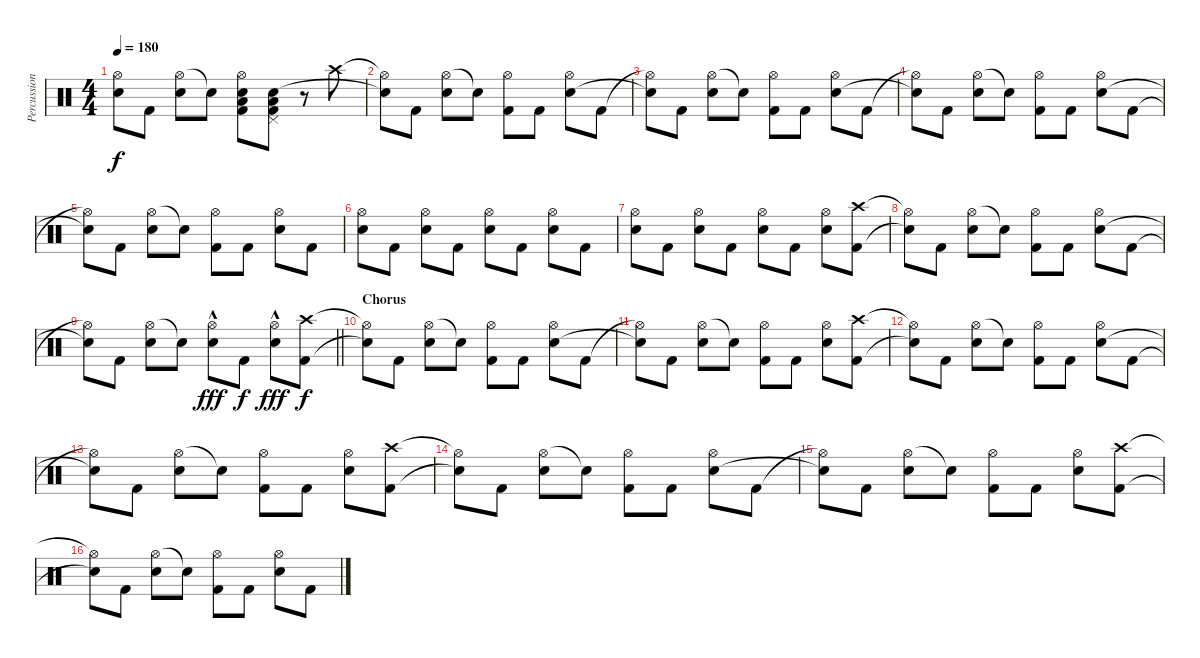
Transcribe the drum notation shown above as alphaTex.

\track ("Percussion" "Percussion") {instrument percussion}
\staff {score}
\articulation defaults
\ts (4 4)
\tempo 180
\clef neutral
\ks c
("Hi-Hat (open)"{t} "Snare (hit)"{t}).8{dy f} "Kick (hit) 2".8 ("Hi-Hat (open)" "Electric Snare (hit)").8 "Snare (hit)"{t}.8 ("Hi-Hat (open)" "Electric Snare (hit)" "Low Floor Tom (hit)" "Kick (hit) 2").8 ("Pedal Hi-Hat (hit)" "Electric Snare (hit)" "Low Floor Tom (hit)" "Kick (hit) 2").8 r.8 "Crash high (hit)".8 |
("Hi-Hat (open)"{t} "Snare (hit)"{t}).8 "Kick (hit) 2".8 ("Hi-Hat (open)" "Electric Snare (hit)").8 "Snare (hit)"{t}.8 ("Hi-Hat (open)" "Kick (hit) 2").8 "Kick (hit) 2".8 ("Hi-Hat (open)" "Electric Snare (hit)").8 "Kick (hit) 2".8 |
("Hi-Hat (open)"{t} "Snare (hit)"{t}).8 "Kick (hit) 2".8 ("Hi-Hat (open)" "Electric Snare (hit)").8 "Snare (hit)"{t}.8 ("Hi-Hat (open)" "Kick (hit) 2").8 "Kick (hit) 2".8 ("Hi-Hat (open)" "Electric Snare (hit)").8 "Kick (hit) 2".8 |
("Hi-Hat (open)"{t} "Snare (hit)"{t}).8 "Kick (hit) 2".8 ("Hi-Hat (open)" "Electric Snare (hit)").8 "Snare (hit)"{t}.8 ("Hi-Hat (open)" "Kick (hit) 2").8 "Kick (hit) 2".8 ("Hi-Hat (open)" "Electric Snare (hit)").8 "Kick (hit) 2".8 |
("Hi-Hat (open)"{t} "Snare (hit)"{t}).8 "Kick (hit) 2".8 ("Hi-Hat (open)" "Electric Snare (hit)").8 "Snare (hit)"{t}.8 ("Hi-Hat (open)" "Kick (hit) 2").8 "Kick (hit) 2".8 ("Hi-Hat (open)" "Electric Snare (hit)").8 "Kick (hit) 2".8 |
("Hi-Hat (open)" "Electric Snare (hit)").8 "Kick (hit) 2".8 ("Hi-Hat (open)" "Electric Snare (hit)").8 "Kick (hit) 2".8 ("Hi-Hat (open)" "Electric Snare (hit)").8 "Kick (hit) 2".8 ("Hi-Hat (open)" "Electric Snare (hit)").8 "Kick (hit) 2".8 |
("Hi-Hat (open)" "Electric Snare (hit)").8 "Kick (hit) 2".8 ("Hi-Hat (open)" "Electric Snare (hit)").8 "Kick (hit) 2".8 ("Hi-Hat (open)" "Electric Snare (hit)").8 "Kick (hit) 2".8 ("Hi-Hat (open)" "Electric Snare (hit)").8 ("Crash high (hit)" "Kick (hit) 2").8 |
("Hi-Hat (open)"{t} "Snare (hit)"{t}).8 "Kick (hit) 2".8 ("Hi-Hat (open)" "Electric Snare (hit)").8 "Snare (hit)"{t}.8 ("Hi-Hat (open)" "Kick (hit) 2").8 "Kick (hit) 2".8 ("Hi-Hat (open)" "Electric Snare (hit)").8 "Kick (hit) 2".8 |
\barLineRight lightlight
("Hi-Hat (open)"{t} "Snare (hit)"{t}).8 "Kick (hit) 2".8 ("Hi-Hat (open)" "Electric Snare (hit)").8 "Snare (hit)"{t}.8 ("Hi-Hat (open)"{hac} "Electric Snare (hit)").8{dy fff} "Kick (hit) 2".8{dy f} ("Hi-Hat (open)"{hac} "Electric Snare (hit)").8{dy fff} ("Crash high (hit)" "Kick (hit) 2").8{dy f} |
\section ("" "Chorus")
("Hi-Hat (open)"{t} "Snare (hit)"{t}).8 "Kick (hit) 2".8 ("Hi-Hat (open)" "Electric Snare (hit)").8 "Snare (hit)"{t}.8 ("Hi-Hat (open)" "Kick (hit) 2").8 "Kick (hit) 2".8 ("Hi-Hat (open)" "Electric Snare (hit)").8 "Kick (hit) 2".8 |
("Hi-Hat (open)"{t} "Snare (hit)"{t}).8 "Kick (hit) 2".8 ("Hi-Hat (open)" "Electric Snare (hit)").8 "Snare (hit)"{t}.8 ("Hi-Hat (open)" "Kick (hit) 2").8 "Kick (hit) 2".8 ("Hi-Hat (open)" "Electric Snare (hit)").8 ("Crash high (hit)" "Kick (hit) 2").8 |
("Hi-Hat (open)"{t} "Snare (hit)"{t}).8 "Kick (hit) 2".8 ("Hi-Hat (open)" "Electric Snare (hit)").8 "Snare (hit)"{t}.8 ("Hi-Hat (open)" "Kick (hit) 2").8 "Kick (hit) 2".8 ("Hi-Hat (open)" "Electric Snare (hit)").8 "Kick (hit) 2".8 |
("Hi-Hat (open)"{t} "Snare (hit)"{t}).8 "Kick (hit) 2".8 ("Hi-Hat (open)" "Electric Snare (hit)").8 "Snare (hit)"{t}.8 ("Hi-Hat (open)" "Kick (hit) 2").8 "Kick (hit) 2".8 ("Hi-Hat (open)" "Electric Snare (hit)").8 ("Crash high (hit)" "Kick (hit) 2").8 |
("Hi-Hat (open)"{t} "Snare (hit)"{t}).8 "Kick (hit) 2".8 ("Hi-Hat (open)" "Electric Snare (hit)").8 "Snare (hit)"{t}.8 ("Hi-Hat (open)" "Kick (hit) 2").8 "Kick (hit) 2".8 ("Hi-Hat (open)" "Electric Snare (hit)").8 "Kick (hit) 2".8 |
("Hi-Hat (open)"{t} "Snare (hit)"{t}).8 "Kick (hit) 2".8 ("Hi-Hat (open)" "Electric Snare (hit)").8 "Snare (hit)"{t}.8 ("Hi-Hat (open)" "Kick (hit) 2").8 "Kick (hit) 2".8 ("Hi-Hat (open)" "Electric Snare (hit)").8 ("Crash high (hit)" "Kick (hit) 2").8 |
("Hi-Hat (open)"{t} "Snare (hit)"{t}).8 "Kick (hit) 2".8 ("Hi-Hat (open)" "Electric Snare (hit)").8 "Snare (hit)"{t}.8 ("Hi-Hat (open)" "Kick (hit) 2").8 "Kick (hit) 2".8 ("Hi-Hat (open)" "Electric Snare (hit)").8 "Kick (hit) 2".8
